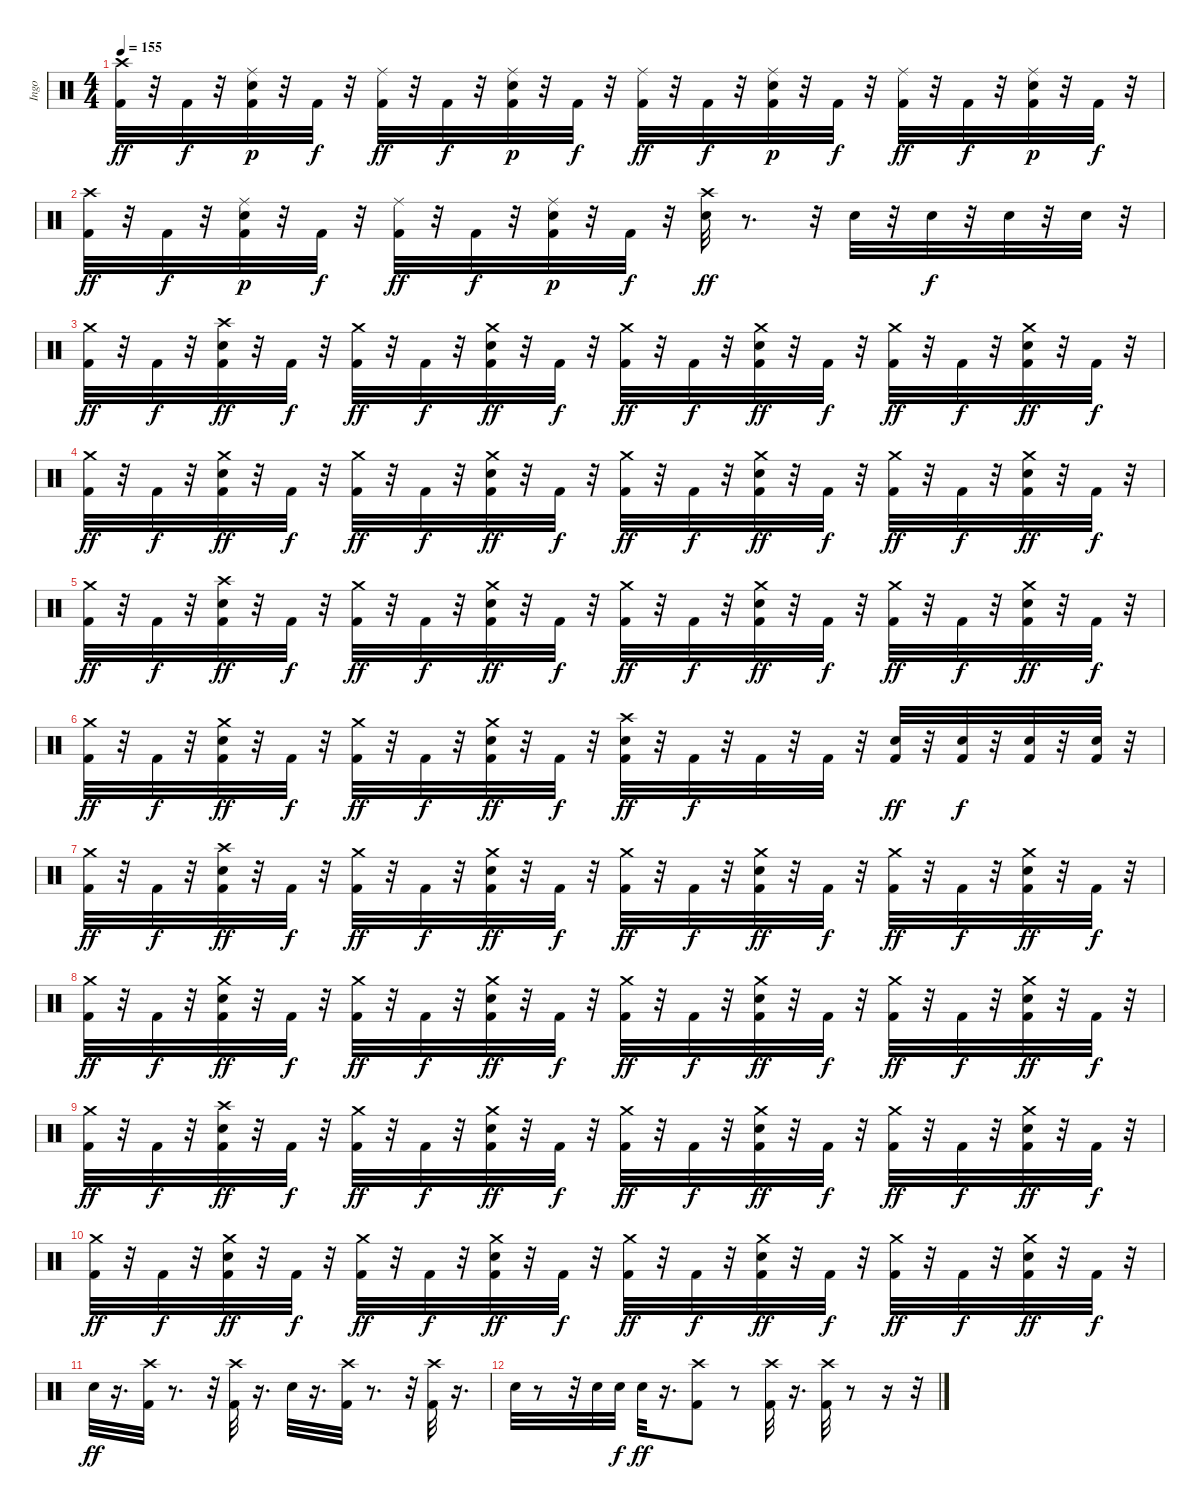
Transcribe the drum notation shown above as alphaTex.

\track ("Ingo" "Ingo") {instrument percussion}
\staff {score}
\articulation defaults
\ts (4 4)
\tempo 155
\clef neutral
\ks c
("Crash high (hit)" "Kick (hit) 2").32{dy ff} r.32 "Kick (hit) 2".32{dy f} r.32 ("Kick (hit) 2" "Snare (hit) 2" "Ride (middle)").32{dy p} r.32 "Kick (hit) 2".32{dy f} r.32 ("Ride (middle)" "Kick (hit) 2").32{dy ff} r.32 "Kick (hit) 2".32{dy f} r.32 ("Kick (hit) 2" "Snare (hit) 2" "Ride (middle)").32{dy p} r.32 "Kick (hit) 2".32{dy f} r.32 ("Ride (middle)" "Kick (hit) 2").32{dy ff} r.32 "Kick (hit) 2".32{dy f} r.32 ("Kick (hit) 2" "Snare (hit) 2" "Ride (middle)").32{dy p} r.32 "Kick (hit) 2".32{dy f} r.32 ("Ride (middle)" "Kick (hit) 2").32{dy ff} r.32 "Kick (hit) 2".32{dy f} r.32 ("Kick (hit) 2" "Snare (hit) 2" "Ride (middle)").32{dy p} r.32 "Kick (hit) 2".32{dy f} r.32 |
("Crash high (hit)" "Kick (hit) 2").32{dy ff} r.32 "Kick (hit) 2".32{dy f} r.32 ("Kick (hit) 2" "Snare (hit) 2" "Ride (middle)").32{dy p} r.32 "Kick (hit) 2".32{dy f} r.32 ("Ride (middle)" "Kick (hit) 2").32{dy ff} r.32 "Kick (hit) 2".32{dy f} r.32 ("Kick (hit) 2" "Snare (hit) 2" "Ride (middle)").32{dy p} r.32 "Kick (hit) 2".32{dy f} r.32 ("Crash high (hit)" "Snare (hit) 2").32{dy ff} r.8{d} r.32 "Snare (hit) 2".32 r.32 "Snare (hit) 2".32{dy f} r.32 "Snare (hit) 2".32 r.32 "Snare (hit) 2".32 r.32 |
("Crash medium (hit)" "Kick (hit) 2").32{dy ff} r.32 "Kick (hit) 2".32{dy f} r.32 ("Snare (hit) 2" "Crash high (hit)" "Kick (hit) 2").32{dy ff} r.32 "Kick (hit) 2".32{dy f} r.32 ("Crash medium (hit)" "Kick (hit) 2").32{dy ff} r.32 "Kick (hit) 2".32{dy f} r.32 ("Kick (hit) 2" "Crash medium (hit)" "Snare (hit) 2").32{dy ff} r.32 "Kick (hit) 2".32{dy f} r.32 ("Crash medium (hit)" "Kick (hit) 2").32{dy ff} r.32 "Kick (hit) 2".32{dy f} r.32 ("Kick (hit) 2" "Crash medium (hit)" "Snare (hit) 2").32{dy ff} r.32 "Kick (hit) 2".32{dy f} r.32 ("Crash medium (hit)" "Kick (hit) 2").32{dy ff} r.32 "Kick (hit) 2".32{dy f} r.32 ("Kick (hit) 2" "Crash medium (hit)" "Snare (hit) 2").32{dy ff} r.32 "Kick (hit) 2".32{dy f} r.32 |
("Crash medium (hit)" "Kick (hit) 2").32{dy ff} r.32 "Kick (hit) 2".32{dy f} r.32 ("Kick (hit) 2" "Crash medium (hit)" "Snare (hit) 2").32{dy ff} r.32 "Kick (hit) 2".32{dy f} r.32 ("Crash medium (hit)" "Kick (hit) 2").32{dy ff} r.32 "Kick (hit) 2".32{dy f} r.32 ("Kick (hit) 2" "Crash medium (hit)" "Snare (hit) 2").32{dy ff} r.32 "Kick (hit) 2".32{dy f} r.32 ("Crash medium (hit)" "Kick (hit) 2").32{dy ff} r.32 "Kick (hit) 2".32{dy f} r.32 ("Kick (hit) 2" "Crash medium (hit)" "Snare (hit) 2").32{dy ff} r.32 "Kick (hit) 2".32{dy f} r.32 ("Crash medium (hit)" "Kick (hit) 2").32{dy ff} r.32 "Kick (hit) 2".32{dy f} r.32 ("Kick (hit) 2" "Crash medium (hit)" "Snare (hit) 2").32{dy ff} r.32 "Kick (hit) 2".32{dy f} r.32 |
("Crash medium (hit)" "Kick (hit) 2").32{dy ff} r.32 "Kick (hit) 2".32{dy f} r.32 ("Snare (hit) 2" "Crash high (hit)" "Kick (hit) 2").32{dy ff} r.32 "Kick (hit) 2".32{dy f} r.32 ("Crash medium (hit)" "Kick (hit) 2").32{dy ff} r.32 "Kick (hit) 2".32{dy f} r.32 ("Kick (hit) 2" "Crash medium (hit)" "Snare (hit) 2").32{dy ff} r.32 "Kick (hit) 2".32{dy f} r.32 ("Crash medium (hit)" "Kick (hit) 2").32{dy ff} r.32 "Kick (hit) 2".32{dy f} r.32 ("Kick (hit) 2" "Crash medium (hit)" "Snare (hit) 2").32{dy ff} r.32 "Kick (hit) 2".32{dy f} r.32 ("Crash medium (hit)" "Kick (hit) 2").32{dy ff} r.32 "Kick (hit) 2".32{dy f} r.32 ("Kick (hit) 2" "Crash medium (hit)" "Snare (hit) 2").32{dy ff} r.32 "Kick (hit) 2".32{dy f} r.32 |
("Crash medium (hit)" "Kick (hit) 2").32{dy ff} r.32 "Kick (hit) 2".32{dy f} r.32 ("Kick (hit) 2" "Crash medium (hit)" "Snare (hit) 2").32{dy ff} r.32 "Kick (hit) 2".32{dy f} r.32 ("Crash medium (hit)" "Kick (hit) 2").32{dy ff} r.32 "Kick (hit) 2".32{dy f} r.32 ("Kick (hit) 2" "Crash medium (hit)" "Snare (hit) 2").32{dy ff} r.32 "Kick (hit) 2".32{dy f} r.32 ("Kick (hit) 2" "Crash high (hit)" "Snare (hit) 2").32{dy ff} r.32 "Kick (hit) 2".32{dy f} r.32 "Kick (hit) 2".32 r.32 "Kick (hit) 2".32 r.32 ("Snare (hit) 2" "Kick (hit) 2").32{dy ff} r.32 ("Snare (hit) 2" "Kick (hit) 2").32{dy f} r.32 ("Snare (hit) 2" "Kick (hit) 2").32 r.32 ("Snare (hit) 2" "Kick (hit) 2").32 r.32 |
("Crash medium (hit)" "Kick (hit) 2").32{dy ff} r.32 "Kick (hit) 2".32{dy f} r.32 ("Snare (hit) 2" "Crash high (hit)" "Kick (hit) 2").32{dy ff} r.32 "Kick (hit) 2".32{dy f} r.32 ("Crash medium (hit)" "Kick (hit) 2").32{dy ff} r.32 "Kick (hit) 2".32{dy f} r.32 ("Kick (hit) 2" "Crash medium (hit)" "Snare (hit) 2").32{dy ff} r.32 "Kick (hit) 2".32{dy f} r.32 ("Crash medium (hit)" "Kick (hit) 2").32{dy ff} r.32 "Kick (hit) 2".32{dy f} r.32 ("Kick (hit) 2" "Crash medium (hit)" "Snare (hit) 2").32{dy ff} r.32 "Kick (hit) 2".32{dy f} r.32 ("Crash medium (hit)" "Kick (hit) 2").32{dy ff} r.32 "Kick (hit) 2".32{dy f} r.32 ("Kick (hit) 2" "Crash medium (hit)" "Snare (hit) 2").32{dy ff} r.32 "Kick (hit) 2".32{dy f} r.32 |
("Crash medium (hit)" "Kick (hit) 2").32{dy ff} r.32 "Kick (hit) 2".32{dy f} r.32 ("Kick (hit) 2" "Crash medium (hit)" "Snare (hit) 2").32{dy ff} r.32 "Kick (hit) 2".32{dy f} r.32 ("Crash medium (hit)" "Kick (hit) 2").32{dy ff} r.32 "Kick (hit) 2".32{dy f} r.32 ("Kick (hit) 2" "Crash medium (hit)" "Snare (hit) 2").32{dy ff} r.32 "Kick (hit) 2".32{dy f} r.32 ("Crash medium (hit)" "Kick (hit) 2").32{dy ff} r.32 "Kick (hit) 2".32{dy f} r.32 ("Kick (hit) 2" "Crash medium (hit)" "Snare (hit) 2").32{dy ff} r.32 "Kick (hit) 2".32{dy f} r.32 ("Crash medium (hit)" "Kick (hit) 2").32{dy ff} r.32 "Kick (hit) 2".32{dy f} r.32 ("Kick (hit) 2" "Crash medium (hit)" "Snare (hit) 2").32{dy ff} r.32 "Kick (hit) 2".32{dy f} r.32 |
("Crash medium (hit)" "Kick (hit) 2").32{dy ff} r.32 "Kick (hit) 2".32{dy f} r.32 ("Snare (hit) 2" "Crash high (hit)" "Kick (hit) 2").32{dy ff} r.32 "Kick (hit) 2".32{dy f} r.32 ("Crash medium (hit)" "Kick (hit) 2").32{dy ff} r.32 "Kick (hit) 2".32{dy f} r.32 ("Kick (hit) 2" "Crash medium (hit)" "Snare (hit) 2").32{dy ff} r.32 "Kick (hit) 2".32{dy f} r.32 ("Crash medium (hit)" "Kick (hit) 2").32{dy ff} r.32 "Kick (hit) 2".32{dy f} r.32 ("Kick (hit) 2" "Crash medium (hit)" "Snare (hit) 2").32{dy ff} r.32 "Kick (hit) 2".32{dy f} r.32 ("Crash medium (hit)" "Kick (hit) 2").32{dy ff} r.32 "Kick (hit) 2".32{dy f} r.32 ("Kick (hit) 2" "Crash medium (hit)" "Snare (hit) 2").32{dy ff} r.32 "Kick (hit) 2".32{dy f} r.32 |
("Crash medium (hit)" "Kick (hit) 2").32{dy ff} r.32 "Kick (hit) 2".32{dy f} r.32 ("Kick (hit) 2" "Crash medium (hit)" "Snare (hit) 2").32{dy ff} r.32 "Kick (hit) 2".32{dy f} r.32 ("Crash medium (hit)" "Kick (hit) 2").32{dy ff} r.32 "Kick (hit) 2".32{dy f} r.32 ("Kick (hit) 2" "Crash medium (hit)" "Snare (hit) 2").32{dy ff} r.32 "Kick (hit) 2".32{dy f} r.32 ("Crash medium (hit)" "Kick (hit) 2").32{dy ff} r.32 "Kick (hit) 2".32{dy f} r.32 ("Kick (hit) 2" "Crash medium (hit)" "Snare (hit) 2").32{dy ff} r.32 "Kick (hit) 2".32{dy f} r.32 ("Crash medium (hit)" "Kick (hit) 2").32{dy ff} r.32 "Kick (hit) 2".32{dy f} r.32 ("Kick (hit) 2" "Crash medium (hit)" "Snare (hit) 2").32{dy ff} r.32 "Kick (hit) 2".32{dy f} r.32 |
"Snare (hit) 2".32{dy ff} r.16{d} ("Crash high (hit)" "Kick (hit) 2").32 r.8{d} r.32 ("Crash high (hit)" "Kick (hit) 2").32 r.16{d} "Snare (hit) 2".32 r.16{d} ("Crash high (hit)" "Kick (hit) 2").32 r.8{d} r.32 ("Crash high (hit)" "Kick (hit) 2").32 r.16{d} |
"Snare (hit) 2".32 r.8 r.32 "Snare (hit)".32 "Snare (hit)".32{dy f} "Snare (hit)".32{dy ff} r.16{d} ("Kick (hit) 2" "Crash high (hit)").8 r.8 ("Kick (hit) 2" "Crash high (hit)").32 r.16{d} ("Kick (hit) 2" "Crash high (hit)").32 r.8 r.16 r.32
